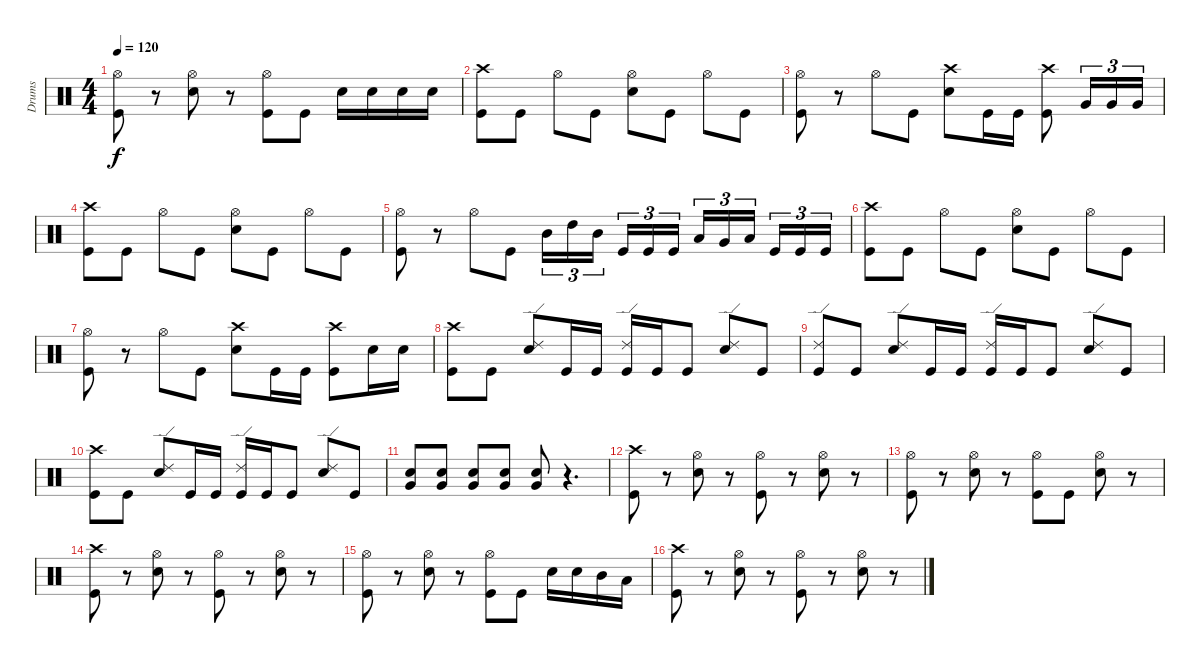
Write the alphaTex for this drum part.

\track ("Drums" "Drums") {instrument percussion}
\staff {score}
\articulation defaults
\ts (4 4)
\tempo 120
\clef neutral
\ks c
("Hi-Hat (open)" "Kick (hit)").8{dy f} r.8 ("Hi-Hat (open)" "Snare (hit) 2").8 r.8 ("Hi-Hat (open)" "Kick (hit)").8 "Kick (hit)".8 "Snare (hit) 2".16 "Snare (hit) 2".16 "Snare (hit) 2".16 "Snare (hit) 2".16 |
("Kick (hit)" "Crash high (hit)").8 "Kick (hit)".8 "Hi-Hat (open)".8 "Kick (hit)".8 ("Hi-Hat (open)" "Snare (hit) 2").8 "Kick (hit)".8 "Hi-Hat (open)".8 "Kick (hit)".8 |
("Hi-Hat (open)" "Kick (hit)").8 r.8 "Hi-Hat (open)".8 "Kick (hit)".8 ("Snare (hit) 2" "Crash high (hit)").8 "Kick (hit)".16 "Kick (hit)".16 ("Kick (hit)" "Crash high (hit)").8 "Very Low Tom (hit)".16{tu (3 2)} "Very Low Tom (hit)".16{tu (3 2)} "Very Low Tom (hit)".16{tu (3 2)} |
("Kick (hit)" "Crash high (hit)").8 "Kick (hit)".8 "Hi-Hat (open)".8 "Kick (hit)".8 ("Hi-Hat (open)" "Snare (hit) 2").8 "Kick (hit)".8 "Hi-Hat (open)".8 "Kick (hit)".8 |
("Hi-Hat (open)" "Kick (hit)").8 r.8 "Hi-Hat (open)".8 "Kick (hit)".8 "Mid Tom (hit)".16{tu (3 2)} "High Tom (hit)".16{tu (3 2)} "Mid Tom (hit)".16{tu (3 2)} "Kick (hit)".16{tu (3 2)} "Kick (hit)".16{tu (3 2)} "Kick (hit)".16{tu (3 2)} "Low Tom (hit)".16{tu (3 2)} "Very Low Tom (hit)".16{tu (3 2)} "Low Tom (hit)".16{tu (3 2)} "Kick (hit)".16{tu (3 2)} "Kick (hit)".16{tu (3 2)} "Kick (hit)".16{tu (3 2)} |
("Kick (hit)" "Crash high (hit)").8 "Kick (hit)".8 "Hi-Hat (open)".8 "Kick (hit)".8 ("Hi-Hat (open)" "Snare (hit) 2").8 "Kick (hit)".8 "Hi-Hat (open)".8 "Kick (hit)".8 |
("Hi-Hat (open)" "Kick (hit)").8 r.8 "Hi-Hat (open)".8 "Kick (hit)".8 ("Snare (hit) 2" "Crash high (hit)").8 "Kick (hit)".16 "Kick (hit)".16 ("Kick (hit)" "Crash high (hit)").8 "Snare (hit) 2".16 "Snare (hit) 2".16 |
("Crash high (hit)" "Kick (hit)").8 "Kick (hit)".8 ("Ride (edge) 2" "Snare (hit) 2").8 "Kick (hit)".16 "Kick (hit)".16 ("Ride (edge) 2" "Kick (hit)").16 "Kick (hit)".16 "Kick (hit)".8 ("Ride (edge) 2" "Snare (hit) 2").8 "Kick (hit)".8 |
("Ride (edge) 2" "Kick (hit)").8 "Kick (hit)".8 ("Ride (edge) 2" "Snare (hit) 2").8 "Kick (hit)".16 "Kick (hit)".16 ("Ride (edge) 2" "Kick (hit)").16 "Kick (hit)".16 "Kick (hit)".8 ("Ride (edge) 2" "Snare (hit) 2").8 "Kick (hit)".8 |
("Crash high (hit)" "Kick (hit)").8 "Kick (hit)".8 ("Ride (edge) 2" "Snare (hit) 2").8 "Kick (hit)".16 "Kick (hit)".16 ("Ride (edge) 2" "Kick (hit)").16 "Kick (hit)".16 "Kick (hit)".8 ("Ride (edge) 2" "Snare (hit) 2").8 "Kick (hit)".8 |
("Snare (hit) 2" "Very Low Tom (hit)").8 ("Snare (hit) 2" "Very Low Tom (hit)").8 ("Snare (hit) 2" "Very Low Tom (hit)").8 ("Snare (hit) 2" "Very Low Tom (hit)").8 ("Snare (hit) 2" "Very Low Tom (hit)").8 r.4{d} |
("Crash high (hit)" "Kick (hit)").8 r.8 ("Hi-Hat (open)" "Snare (hit) 2").8 r.8 ("Hi-Hat (open)" "Kick (hit)").8 r.8 ("Hi-Hat (open)" "Snare (hit) 2").8 r.8 |
("Hi-Hat (open)" "Kick (hit)").8 r.8 ("Hi-Hat (open)" "Snare (hit) 2").8 r.8 ("Hi-Hat (open)" "Kick (hit)").8 "Kick (hit)".8 ("Hi-Hat (open)" "Snare (hit) 2").8 r.8 |
("Crash high (hit)" "Kick (hit)").8 r.8 ("Hi-Hat (open)" "Snare (hit) 2").8 r.8 ("Hi-Hat (open)" "Kick (hit)").8 r.8 ("Hi-Hat (open)" "Snare (hit) 2").8 r.8 |
("Hi-Hat (open)" "Kick (hit)").8 r.8 ("Hi-Hat (open)" "Snare (hit) 2").8 r.8 ("Hi-Hat (open)" "Kick (hit)").8 "Kick (hit)".8 "Snare (hit) 2".16 "Snare (hit) 2".16 "Mid Tom (hit)".16 "Low Tom (hit)".16 |
("Crash high (hit)" "Kick (hit)").8 r.8 ("Hi-Hat (open)" "Snare (hit) 2").8 r.8 ("Hi-Hat (open)" "Kick (hit)").8 r.8 ("Hi-Hat (open)" "Snare (hit) 2").8 r.8
